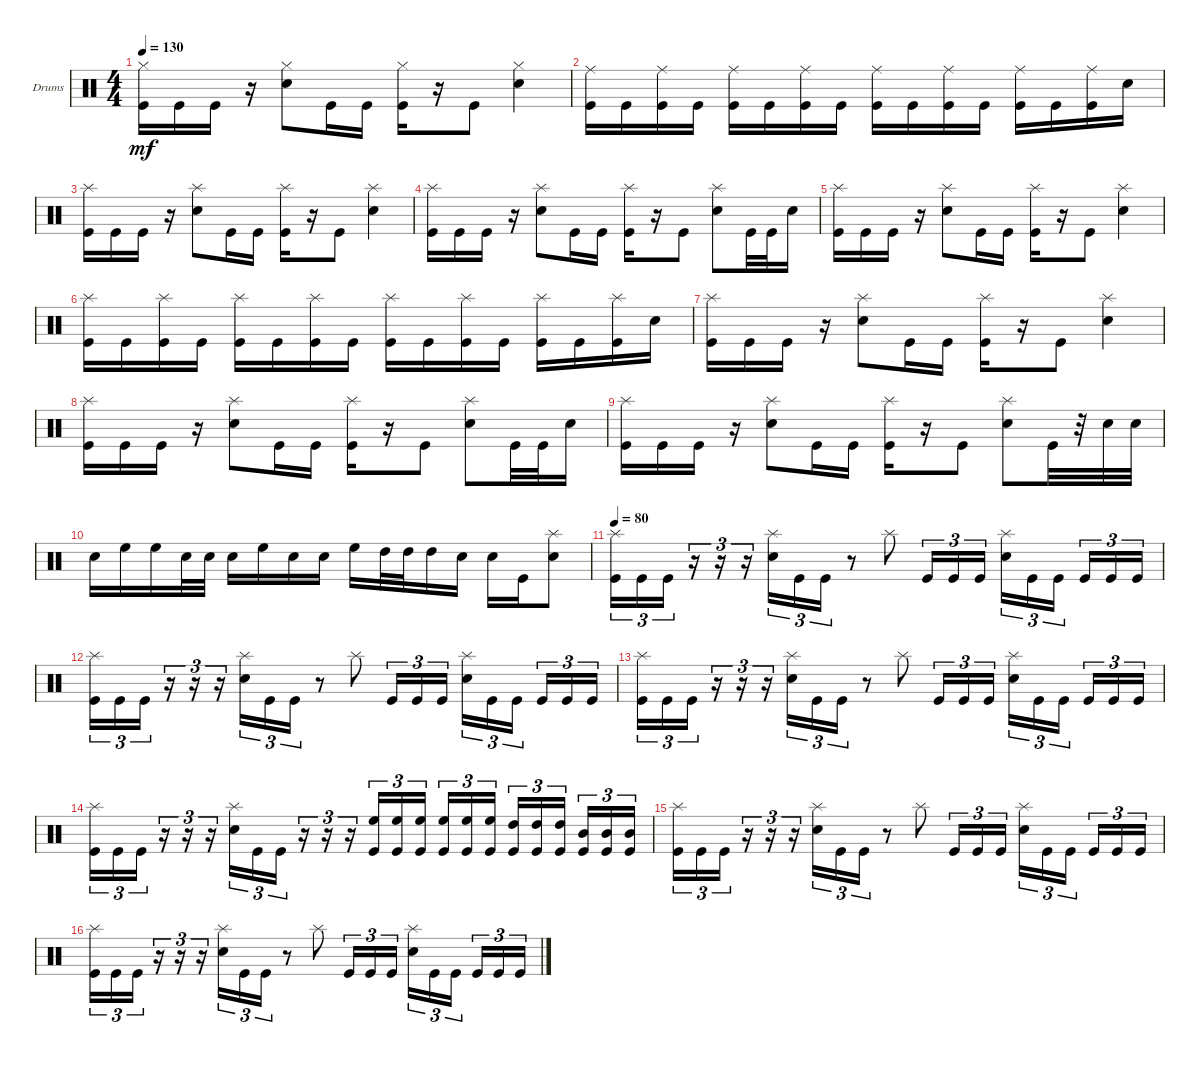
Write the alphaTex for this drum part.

\defaultSystemsLayout 4
\bracketExtendMode groupsimilarinstruments
\firstSystemTrackNameOrientation horizontal
\otherSystemsTrackNameOrientation horizontal
\track ("Drumkit" "Drums") {instrument percussion}
\staff {score}
\articulation defaults
\ts (4 4)
\tempo 130
\clef neutral
\ks c
("Kick (hit)" "Hi-Hat (closed)").16{dy mf} "Kick (hit)".16 "Kick (hit)".16 r.16 ("Snare (hit) 2" "Hi-Hat (closed)").8 "Kick (hit)".16 "Kick (hit)".16 ("Kick (hit)" "Hi-Hat (closed)").16 r.16 "Kick (hit)".8 ("Snare (hit) 2" "Hi-Hat (closed)").4 |
("Kick (hit)" "Ride (middle)").16 "Kick (hit)".16 ("Kick (hit)" "Ride (middle)").16 "Kick (hit)".16 ("Kick (hit)" "Ride (middle)").16 "Kick (hit)".16 ("Kick (hit)" "Ride (middle)").16 "Kick (hit)".16 ("Kick (hit)" "Ride (middle)").16 "Kick (hit)".16 ("Kick (hit)" "Ride (middle)").16 "Kick (hit)".16 ("Kick (hit)" "Ride (middle)").16 "Kick (hit)".16 ("Kick (hit)" "Ride (middle)").16 "Snare (hit) 2".16 |
("Kick (hit)" "Splash (hit)").16 "Kick (hit)".16 "Kick (hit)".16 r.16 ("Snare (hit) 2" "Splash (hit)").8 "Kick (hit)".16 "Kick (hit)".16 ("Kick (hit)" "Splash (hit)").16 r.16 "Kick (hit)".8 ("Snare (hit) 2" "Splash (hit)").4 |
("Kick (hit)" "Splash (hit)").16 "Kick (hit)".16 "Kick (hit)".16 r.16 ("Snare (hit) 2" "Splash (hit)").8 "Kick (hit)".16 "Kick (hit)".16 ("Kick (hit)" "Splash (hit)").16 r.16 "Kick (hit)".8 ("Snare (hit) 2" "Splash (hit)").8 "Kick (hit)".32 "Kick (hit)".32 "Snare (hit) 2".16 |
("Kick (hit)" "Splash (hit)").16 "Kick (hit)".16 "Kick (hit)".16 r.16 ("Snare (hit) 2" "Splash (hit)").8 "Kick (hit)".16 "Kick (hit)".16 ("Kick (hit)" "Splash (hit)").16 r.16 "Kick (hit)".8 ("Snare (hit) 2" "Splash (hit)").4 |
("Kick (hit)" "Splash (hit)").16 "Kick (hit)".16 ("Kick (hit)" "Splash (hit)").16 "Kick (hit)".16 ("Kick (hit)" "Splash (hit)").16 "Kick (hit)".16 ("Kick (hit)" "Splash (hit)").16 "Kick (hit)".16 ("Kick (hit)" "Splash (hit)").16 "Kick (hit)".16 ("Kick (hit)" "Splash (hit)").16 "Kick (hit)".16 ("Kick (hit)" "Splash (hit)").16 "Kick (hit)".16 ("Splash (hit)" "Kick (hit)").16 "Snare (hit) 2".16 |
("Kick (hit)" "Splash (hit)").16 "Kick (hit)".16 "Kick (hit)".16 r.16 ("Snare (hit) 2" "Splash (hit)").8 "Kick (hit)".16 "Kick (hit)".16 ("Kick (hit)" "Splash (hit)").16 r.16 "Kick (hit)".8 ("Snare (hit) 2" "Splash (hit)").4 |
("Kick (hit)" "Splash (hit)").16 "Kick (hit)".16 "Kick (hit)".16 r.16 ("Snare (hit) 2" "Splash (hit)").8 "Kick (hit)".16 "Kick (hit)".16 ("Kick (hit)" "Splash (hit)").16 r.16 "Kick (hit)".8 ("Snare (hit) 2" "Splash (hit)").8 "Kick (hit)".32 "Kick (hit)".32 "Snare (hit) 2".16 |
("Kick (hit)" "Splash (hit)").16 "Kick (hit)".16 "Kick (hit)".16 r.16 ("Snare (hit) 2" "Splash (hit)").8 "Kick (hit)".16 "Kick (hit)".16 ("Kick (hit)" "Splash (hit)").16 r.16 "Kick (hit)".8 ("Snare (hit) 2" "Splash (hit)").8 "Kick (hit)".32 r.32 "Snare (hit) 2".32 "Snare (hit) 2".32 |
"Snare (hit) 2".16 "High Floor Tom (hit)".16 "High Floor Tom (hit)".16 "Snare (hit) 2".32 "Snare (hit) 2".32 "Snare (hit) 2".16 "High Floor Tom (hit)".16 "Snare (hit) 2".16 "Snare (hit) 2".16 "High Floor Tom (hit)".16 "High Tom (hit)".32 "High Tom (hit)".32 "High Tom (hit)".16 "Snare (hit) 2".16 "Snare (hit) 2".16 "Kick (hit)".16 ("Snare (hit) 2" "Splash (hit)").8 |
\tempo 80
("Kick (hit)" "Splash (hit)").16{tu (3 2)} "Kick (hit)".16{tu (3 2)} "Kick (hit)".16{tu (3 2)} r.16{tu (3 2)} r.16{tu (3 2)} r.16{tu (3 2)} ("Snare (hit) 2" "Splash (hit)").16{tu (3 2)} "Kick (hit)".16{tu (3 2)} "Kick (hit)".16{tu (3 2)} r.8 "Splash (hit)".8 "Kick (hit)".16{tu (3 2)} "Kick (hit)".16{tu (3 2)} "Kick (hit)".16{tu (3 2)} ("Snare (hit) 2" "Splash (hit)").16{tu (3 2)} "Kick (hit)".16{tu (3 2)} "Kick (hit)".16{tu (3 2)} "Kick (hit)".16{tu (3 2)} "Kick (hit)".16{tu (3 2)} "Kick (hit)".16{tu (3 2)} |
("Kick (hit)" "Splash (hit)").16{tu (3 2)} "Kick (hit)".16{tu (3 2)} "Kick (hit)".16{tu (3 2)} r.16{tu (3 2)} r.16{tu (3 2)} r.16{tu (3 2)} ("Snare (hit) 2" "Splash (hit)").16{tu (3 2)} "Kick (hit)".16{tu (3 2)} "Kick (hit)".16{tu (3 2)} r.8 "Splash (hit)".8 "Kick (hit)".16{tu (3 2)} "Kick (hit)".16{tu (3 2)} "Kick (hit)".16{tu (3 2)} ("Snare (hit) 2" "Splash (hit)").16{tu (3 2)} "Kick (hit)".16{tu (3 2)} "Kick (hit)".16{tu (3 2)} "Kick (hit)".16{tu (3 2)} "Kick (hit)".16{tu (3 2)} "Kick (hit)".16{tu (3 2)} |
("Kick (hit)" "Splash (hit)").16{tu (3 2)} "Kick (hit)".16{tu (3 2)} "Kick (hit)".16{tu (3 2)} r.16{tu (3 2)} r.16{tu (3 2)} r.16{tu (3 2)} ("Snare (hit) 2" "Splash (hit)").16{tu (3 2)} "Kick (hit)".16{tu (3 2)} "Kick (hit)".16{tu (3 2)} r.8 "Splash (hit)".8 "Kick (hit)".16{tu (3 2)} "Kick (hit)".16{tu (3 2)} "Kick (hit)".16{tu (3 2)} ("Snare (hit) 2" "Splash (hit)").16{tu (3 2)} "Kick (hit)".16{tu (3 2)} "Kick (hit)".16{tu (3 2)} "Kick (hit)".16{tu (3 2)} "Kick (hit)".16{tu (3 2)} "Kick (hit)".16{tu (3 2)} |
("Kick (hit)" "Splash (hit)").16{tu (3 2)} "Kick (hit)".16{tu (3 2)} "Kick (hit)".16{tu (3 2)} r.16{tu (3 2)} r.16{tu (3 2)} r.16{tu (3 2)} ("Snare (hit) 2" "Splash (hit)").16{tu (3 2)} "Kick (hit)".16{tu (3 2)} "Kick (hit)".16{tu (3 2)} r.16{tu (3 2)} r.16{tu (3 2)} r.16{tu (3 2)} ("High Floor Tom (hit)" "Kick (hit)").16{tu (3 2)} ("High Floor Tom (hit)" "Kick (hit)").16{tu (3 2)} ("High Floor Tom (hit)" "Kick (hit)").16{tu (3 2)} ("High Floor Tom (hit)" "Kick (hit)").16{tu (3 2)} ("High Floor Tom (hit)" "Kick (hit)").16{tu (3 2)} ("High Floor Tom (hit)" "Kick (hit)").16{tu (3 2)} ("High Tom (hit)" "Kick (hit)").16{tu (3 2)} ("High Tom (hit)" "Kick (hit)").16{tu (3 2)} ("High Tom (hit)" "Kick (hit)").16{tu (3 2)} ("Mid Tom (hit)" "Kick (hit)").16{tu (3 2)} ("Mid Tom (hit)" "Kick (hit)").16{tu (3 2)} ("Mid Tom (hit)" "Kick (hit)").16{tu (3 2)} |
("Kick (hit)" "Splash (hit)").16{tu (3 2)} "Kick (hit)".16{tu (3 2)} "Kick (hit)".16{tu (3 2)} r.16{tu (3 2)} r.16{tu (3 2)} r.16{tu (3 2)} ("Snare (hit) 2" "Splash (hit)").16{tu (3 2)} "Kick (hit)".16{tu (3 2)} "Kick (hit)".16{tu (3 2)} r.8 "Splash (hit)".8 "Kick (hit)".16{tu (3 2)} "Kick (hit)".16{tu (3 2)} "Kick (hit)".16{tu (3 2)} ("Snare (hit) 2" "Splash (hit)").16{tu (3 2)} "Kick (hit)".16{tu (3 2)} "Kick (hit)".16{tu (3 2)} "Kick (hit)".16{tu (3 2)} "Kick (hit)".16{tu (3 2)} "Kick (hit)".16{tu (3 2)} |
("Kick (hit)" "Splash (hit)").16{tu (3 2)} "Kick (hit)".16{tu (3 2)} "Kick (hit)".16{tu (3 2)} r.16{tu (3 2)} r.16{tu (3 2)} r.16{tu (3 2)} ("Snare (hit) 2" "Splash (hit)").16{tu (3 2)} "Kick (hit)".16{tu (3 2)} "Kick (hit)".16{tu (3 2)} r.8 "Splash (hit)".8 "Kick (hit)".16{tu (3 2)} "Kick (hit)".16{tu (3 2)} "Kick (hit)".16{tu (3 2)} ("Snare (hit) 2" "Splash (hit)").16{tu (3 2)} "Kick (hit)".16{tu (3 2)} "Kick (hit)".16{tu (3 2)} "Kick (hit)".16{tu (3 2)} "Kick (hit)".16{tu (3 2)} "Kick (hit)".16{tu (3 2)}
